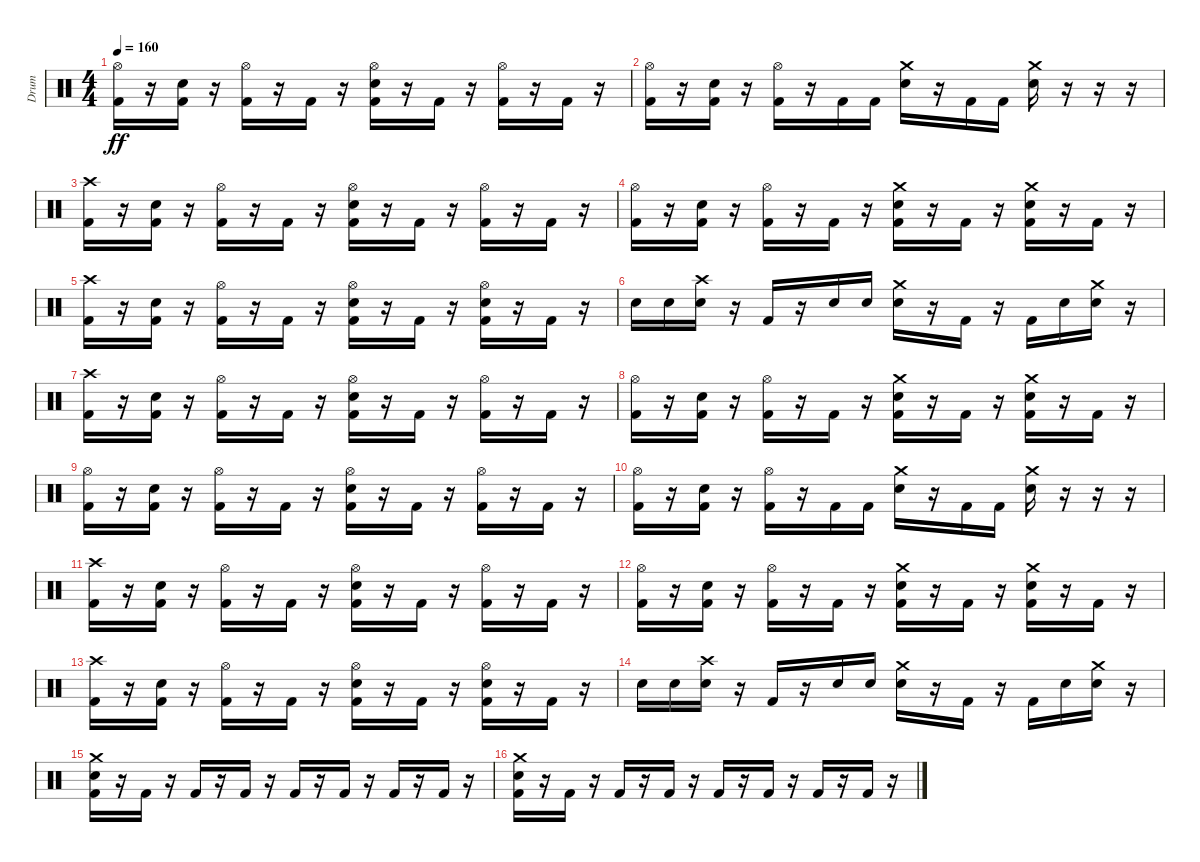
\track ("Drum" "Drum") {instrument percussion}
\staff {score}
\articulation defaults
\ts (4 4)
\tempo 160
\clef neutral
\ks c
("Hi-Hat (open)" "Kick (hit) 2").16{dy ff} r.16 ("Snare (hit) 2" "Kick (hit) 2").16 r.16 ("Hi-Hat (open)" "Kick (hit) 2").16 r.16 "Kick (hit) 2".16 r.16 ("Hi-Hat (open)" "Snare (hit) 2" "Kick (hit) 2").16 r.16 "Kick (hit) 2".16 r.16 ("Hi-Hat (open)" "Kick (hit) 2").16 r.16 "Kick (hit) 2".16 r.16 |
("Hi-Hat (open)" "Kick (hit) 2").16 r.16 ("Snare (hit) 2" "Kick (hit) 2").16 r.16 ("Hi-Hat (open)" "Kick (hit) 2").16 r.16 "Kick (hit) 2".16 "Kick (hit) 2".16 ("Crash medium (hit)" "Snare (hit) 2").16 r.16 "Kick (hit) 2".16 "Kick (hit) 2".16 ("Crash medium (hit)" "Snare (hit) 2").16 r.16 r.16 r.16 |
("Crash high (hit)" "Kick (hit) 2").16 r.16 ("Snare (hit) 2" "Kick (hit) 2").16 r.16 ("Hi-Hat (open)" "Kick (hit) 2").16 r.16 "Kick (hit) 2".16 r.16 ("Hi-Hat (open)" "Snare (hit) 2" "Kick (hit) 2").16 r.16 "Kick (hit) 2".16 r.16 ("Hi-Hat (open)" "Kick (hit) 2").16 r.16 "Kick (hit) 2".16 r.16 |
("Hi-Hat (open)" "Kick (hit) 2").16 r.16 ("Snare (hit) 2" "Kick (hit) 2").16 r.16 ("Hi-Hat (open)" "Kick (hit) 2").16 r.16 "Kick (hit) 2".16 r.16 ("Crash medium (hit)" "Snare (hit) 2" "Kick (hit) 2").16 r.16 "Kick (hit) 2".16 r.16 ("Crash medium (hit)" "Snare (hit) 2" "Kick (hit) 2").16 r.16 "Kick (hit) 2".16 r.16 |
("Crash high (hit)" "Kick (hit) 2").16 r.16 ("Snare (hit) 2" "Kick (hit) 2").16 r.16 ("Hi-Hat (open)" "Kick (hit) 2").16 r.16 "Kick (hit) 2".16 r.16 ("Hi-Hat (open)" "Snare (hit) 2" "Kick (hit) 2").16 r.16 "Kick (hit) 2".16 r.16 ("Hi-Hat (open)" "Snare (hit) 2" "Kick (hit) 2").16 r.16 "Kick (hit) 2".16 r.16 |
"Snare (hit) 2".16 "Snare (hit) 2".16 ("Crash high (hit)" "Snare (hit) 2").16 r.16 "Kick (hit) 2".16 r.16 "Snare (hit) 2".16 "Snare (hit) 2".16 ("Crash medium (hit)" "Snare (hit) 2").16 r.16 "Kick (hit) 2".16 r.16 "Kick (hit) 2".16 "Snare (hit) 2".16 ("Crash medium (hit)" "Snare (hit) 2").16 r.16 |
("Crash high (hit)" "Kick (hit) 2").16 r.16 ("Snare (hit) 2" "Kick (hit) 2").16 r.16 ("Hi-Hat (open)" "Kick (hit) 2").16 r.16 "Kick (hit) 2".16 r.16 ("Hi-Hat (open)" "Snare (hit) 2" "Kick (hit) 2").16 r.16 "Kick (hit) 2".16 r.16 ("Hi-Hat (open)" "Kick (hit) 2").16 r.16 "Kick (hit) 2".16 r.16 |
("Hi-Hat (open)" "Kick (hit) 2").16 r.16 ("Snare (hit) 2" "Kick (hit) 2").16 r.16 ("Hi-Hat (open)" "Kick (hit) 2").16 r.16 "Kick (hit) 2".16 r.16 ("Crash medium (hit)" "Snare (hit) 2" "Kick (hit) 2").16 r.16 "Kick (hit) 2".16 r.16 ("Crash medium (hit)" "Snare (hit) 2" "Kick (hit) 2").16 r.16 "Kick (hit) 2".16 r.16 |
("Hi-Hat (open)" "Kick (hit) 2").16 r.16 ("Snare (hit) 2" "Kick (hit) 2").16 r.16 ("Hi-Hat (open)" "Kick (hit) 2").16 r.16 "Kick (hit) 2".16 r.16 ("Hi-Hat (open)" "Snare (hit) 2" "Kick (hit) 2").16 r.16 "Kick (hit) 2".16 r.16 ("Hi-Hat (open)" "Kick (hit) 2").16 r.16 "Kick (hit) 2".16 r.16 |
("Hi-Hat (open)" "Kick (hit) 2").16 r.16 ("Snare (hit) 2" "Kick (hit) 2").16 r.16 ("Hi-Hat (open)" "Kick (hit) 2").16 r.16 "Kick (hit) 2".16 "Kick (hit) 2".16 ("Crash medium (hit)" "Snare (hit) 2").16 r.16 "Kick (hit) 2".16 "Kick (hit) 2".16 ("Crash medium (hit)" "Snare (hit) 2").16 r.16 r.16 r.16 |
("Crash high (hit)" "Kick (hit) 2").16 r.16 ("Snare (hit) 2" "Kick (hit) 2").16 r.16 ("Hi-Hat (open)" "Kick (hit) 2").16 r.16 "Kick (hit) 2".16 r.16 ("Hi-Hat (open)" "Snare (hit) 2" "Kick (hit) 2").16 r.16 "Kick (hit) 2".16 r.16 ("Hi-Hat (open)" "Kick (hit) 2").16 r.16 "Kick (hit) 2".16 r.16 |
("Hi-Hat (open)" "Kick (hit) 2").16 r.16 ("Snare (hit) 2" "Kick (hit) 2").16 r.16 ("Hi-Hat (open)" "Kick (hit) 2").16 r.16 "Kick (hit) 2".16 r.16 ("Crash medium (hit)" "Snare (hit) 2" "Kick (hit) 2").16 r.16 "Kick (hit) 2".16 r.16 ("Crash medium (hit)" "Snare (hit) 2" "Kick (hit) 2").16 r.16 "Kick (hit) 2".16 r.16 |
("Crash high (hit)" "Kick (hit) 2").16 r.16 ("Snare (hit) 2" "Kick (hit) 2").16 r.16 ("Hi-Hat (open)" "Kick (hit) 2").16 r.16 "Kick (hit) 2".16 r.16 ("Hi-Hat (open)" "Snare (hit) 2" "Kick (hit) 2").16 r.16 "Kick (hit) 2".16 r.16 ("Hi-Hat (open)" "Snare (hit) 2" "Kick (hit) 2").16 r.16 "Kick (hit) 2".16 r.16 |
"Snare (hit) 2".16 "Snare (hit) 2".16 ("Crash high (hit)" "Snare (hit) 2").16 r.16 "Kick (hit) 2".16 r.16 "Snare (hit) 2".16 "Snare (hit) 2".16 ("Crash medium (hit)" "Snare (hit) 2").16 r.16 "Kick (hit) 2".16 r.16 "Kick (hit) 2".16 "Snare (hit) 2".16 ("Crash medium (hit)" "Snare (hit) 2").16 r.16 |
("Crash medium (hit)" "Snare (hit) 2" "Kick (hit) 2").16 r.16 "Kick (hit) 2".16 r.16 "Kick (hit) 2".16 r.16 "Kick (hit) 2".16 r.16 "Kick (hit) 2".16 r.16 "Kick (hit) 2".16 r.16 "Kick (hit) 2".16 r.16 "Kick (hit) 2".16 r.16 |
("Crash medium (hit)" "Snare (hit) 2" "Kick (hit) 2").16 r.16 "Kick (hit) 2".16 r.16 "Kick (hit) 2".16 r.16 "Kick (hit) 2".16 r.16 "Kick (hit) 2".16 r.16 "Kick (hit) 2".16 r.16 "Kick (hit) 2".16 r.16 "Kick (hit) 2".16 r.16
